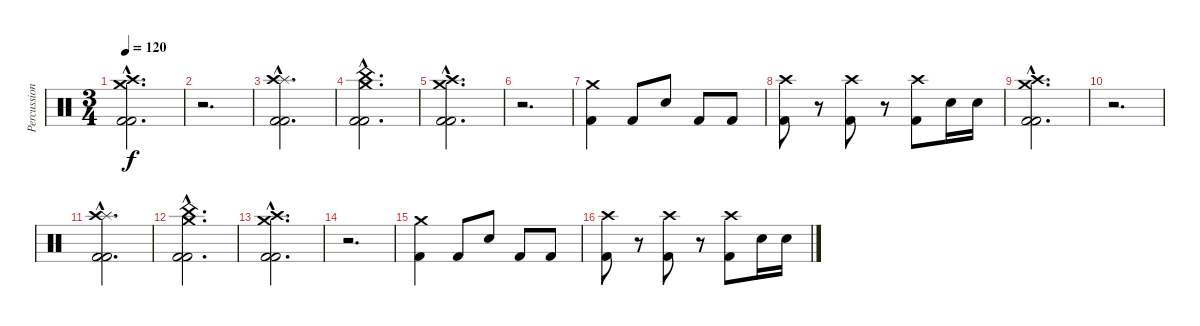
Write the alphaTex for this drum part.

\track ("Percussion" "Percussion") {instrument percussion}
\staff {score}
\articulation defaults
\ts (3 4)
\tempo 120
\clef neutral
\ks c
("Crash medium (hit)"{hac} "Crash high (hit)"{hac} "Kick (hit) 2"{hac} "Kick (hit) 2"{hac}).2{d dy f} |
r.2{d} |
("Splash (hit)"{hac} "Crash high (hit)"{hac} "Kick (hit) 2"{hac} "Kick (hit) 2"{hac}).2{d} |
("Crash medium (hit)"{hac} "China (hit)"{hac} "Kick (hit) 2"{hac} "Kick (hit) 2"{hac}).2{d} |
("Crash medium (hit)"{hac} "Crash high (hit)"{hac} "Kick (hit) 2"{hac} "Kick (hit) 2"{hac}).2{d} |
r.2{d} |
("Crash medium (hit)" "Kick (hit) 2").4 "Kick (hit) 2".8 "Electric Snare (hit)".8 "Kick (hit) 2".8 "Kick (hit) 2".8 |
("Crash high (hit)" "Kick (hit) 2").8 r.8 ("Crash high (hit)" "Kick (hit) 2").8 r.8 ("Crash high (hit)" "Kick (hit) 2").8 "Electric Snare (hit)".16 "Electric Snare (hit)".16 |
("Crash medium (hit)"{hac} "Crash high (hit)"{hac} "Kick (hit) 2"{hac} "Kick (hit) 2"{hac}).2{d} |
r.2{d} |
("Splash (hit)"{hac} "Crash high (hit)"{hac} "Kick (hit) 2"{hac} "Kick (hit) 2"{hac}).2{d} |
("Crash medium (hit)"{hac} "China (hit)"{hac} "Kick (hit) 2"{hac} "Kick (hit) 2"{hac}).2{d} |
("Crash medium (hit)"{hac} "Crash high (hit)"{hac} "Kick (hit) 2"{hac} "Kick (hit) 2"{hac}).2{d} |
r.2{d} |
("Crash medium (hit)" "Kick (hit) 2").4 "Kick (hit) 2".8 "Electric Snare (hit)".8 "Kick (hit) 2".8 "Kick (hit) 2".8 |
("Crash high (hit)" "Kick (hit) 2").8 r.8 ("Crash high (hit)" "Kick (hit) 2").8 r.8 ("Crash high (hit)" "Kick (hit) 2").8 "Electric Snare (hit)".16 "Electric Snare (hit)".16
